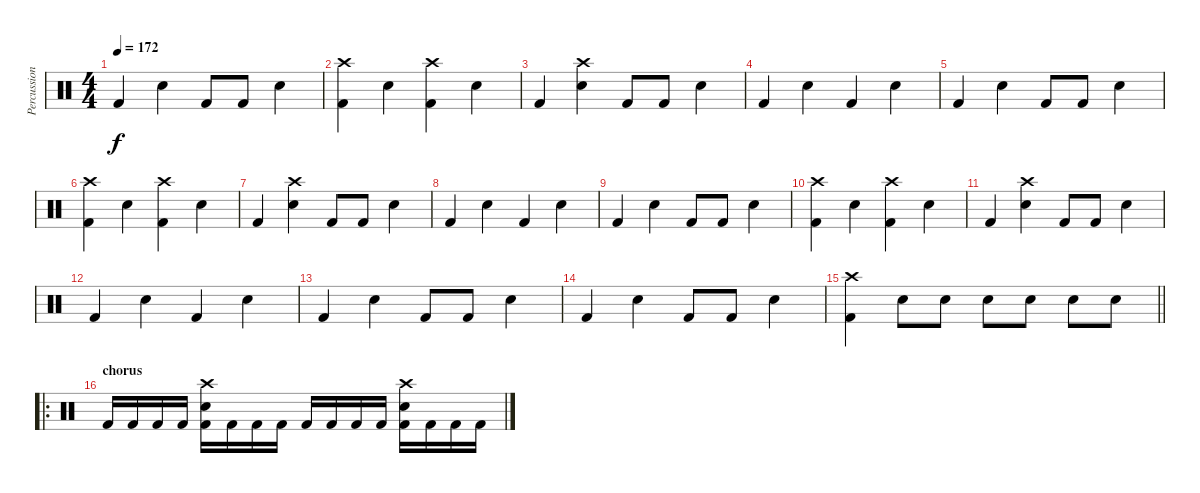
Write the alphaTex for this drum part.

\track ("Percussion" "Percussion") {instrument percussion}
\staff {score}
\articulation defaults
\ts (4 4)
\tempo 172
\clef neutral
\ks c "Kick (hit) 2".4{dy f} "Electric Snare (hit)".4 "Kick (hit) 2".8 "Kick (hit) 2".8 "Electric Snare (hit)".4
|
("Crash high (hit)" "Kick (hit) 2").4 "Electric Snare (hit)".4 ("Crash high (hit)" "Kick (hit) 2").4 "Electric Snare (hit)".4 |
"Kick (hit) 2".4 ("Crash high (hit)" "Electric Snare (hit)").4 "Kick (hit) 2".8 "Kick (hit) 2".8 "Electric Snare (hit)".4 |
"Kick (hit) 2".4 "Electric Snare (hit)".4 "Kick (hit) 2".4 "Electric Snare (hit)".4 |
"Kick (hit) 2".4 "Electric Snare (hit)".4 "Kick (hit) 2".8 "Kick (hit) 2".8 "Electric Snare (hit)".4 |
("Crash high (hit)" "Kick (hit) 2").4 "Electric Snare (hit)".4 ("Crash high (hit)" "Kick (hit) 2").4 "Electric Snare (hit)".4 |
"Kick (hit) 2".4 ("Crash high (hit)" "Electric Snare (hit)").4 "Kick (hit) 2".8 "Kick (hit) 2".8 "Electric Snare (hit)".4 |
"Kick (hit) 2".4 "Electric Snare (hit)".4 "Kick (hit) 2".4 "Electric Snare (hit)".4 |
"Kick (hit) 2".4 "Electric Snare (hit)".4 "Kick (hit) 2".8 "Kick (hit) 2".8 "Electric Snare (hit)".4 |
("Crash high (hit)" "Kick (hit) 2").4 "Electric Snare (hit)".4 ("Crash high (hit)" "Kick (hit) 2").4 "Electric Snare (hit)".4 |
"Kick (hit) 2".4 ("Crash high (hit)" "Electric Snare (hit)").4 "Kick (hit) 2".8 "Kick (hit) 2".8 "Electric Snare (hit)".4 |
"Kick (hit) 2".4 "Electric Snare (hit)".4 "Kick (hit) 2".4 "Electric Snare (hit)".4 |
"Kick (hit) 2".4 "Electric Snare (hit)".4 "Kick (hit) 2".8 "Kick (hit) 2".8 "Electric Snare (hit)".4 |
"Kick (hit) 2".4 "Electric Snare (hit)".4 "Kick (hit) 2".8 "Kick (hit) 2".8 "Electric Snare (hit)".4 |
\barLineRight lightlight
("Crash high (hit)" "Kick (hit) 2").4 "Electric Snare (hit)".8 "Electric Snare (hit)".8 "Electric Snare (hit)".8 "Electric Snare (hit)".8 "Electric Snare (hit)".8 "Electric Snare (hit)".8 |
\ro
\section ("" "chorus")
"Kick (hit) 2".16 "Kick (hit) 2".16 "Kick (hit) 2".16 "Kick (hit) 2".16 ("Crash high (hit)" "Electric Snare (hit)" "Kick (hit) 2").16 "Kick (hit) 2".16 "Kick (hit) 2".16 "Kick (hit) 2".16 "Kick (hit) 2".16 "Kick (hit) 2".16 "Kick (hit) 2".16 "Kick (hit) 2".16 ("Crash high (hit)" "Electric Snare (hit)" "Kick (hit) 2").16 "Kick (hit) 2".16 "Kick (hit) 2".16 "Kick (hit) 2".16
